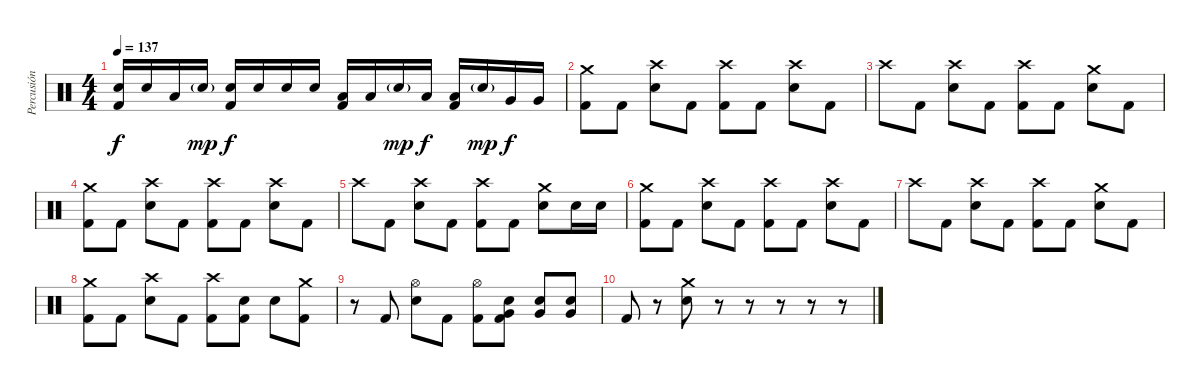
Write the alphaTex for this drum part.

\track ("Percusión" "Percusión") {instrument percussion}
\staff {score}
\articulation defaults
\ts (4 4)
\tempo 137
\clef neutral
\ks c
("Electric Snare (hit)" "Kick (hit) 2").16{dy f} "Electric Snare (hit)".16 "Low Tom (hit)".16 "Electric Snare (hit)"{g}.16{dy mp} ("Electric Snare (hit)" "Kick (hit) 2").16{dy f} "Electric Snare (hit)".16 "Electric Snare (hit)".16 "Electric Snare (hit)".16 ("Low Tom (hit)" "Kick (hit) 2").16 "Low Tom (hit)".16 "Electric Snare (hit)"{g}.16{dy mp} "Low Tom (hit)".16{dy f} ("Low Tom (hit)" "Kick (hit) 2").16 "Electric Snare (hit)"{g}.16{dy mp} "Very Low Tom (hit)".16{dy f} "Very Low Tom (hit)".16 |
("Crash medium (hit)" "Kick (hit) 2").8 "Kick (hit) 2".8 ("Crash high (hit)" "Electric Snare (hit)").8 "Kick (hit) 2".8 ("Crash high (hit)" "Kick (hit) 2").8 "Kick (hit) 2".8 ("Crash high (hit)" "Electric Snare (hit)").8 "Kick (hit) 2".8 |
"Crash high (hit)".8 "Kick (hit) 2".8 ("Crash high (hit)" "Electric Snare (hit)").8 "Kick (hit) 2".8 ("Crash high (hit)" "Kick (hit) 2").8 "Kick (hit) 2".8 ("Crash medium (hit)" "Electric Snare (hit)").8 "Kick (hit) 2".8 |
("Crash medium (hit)" "Kick (hit) 2").8 "Kick (hit) 2".8 ("Crash high (hit)" "Electric Snare (hit)").8 "Kick (hit) 2".8 ("Crash high (hit)" "Kick (hit) 2").8 "Kick (hit) 2".8 ("Crash high (hit)" "Electric Snare (hit)").8 "Kick (hit) 2".8 |
"Crash high (hit)".8 "Kick (hit) 2".8 ("Crash high (hit)" "Electric Snare (hit)").8 "Kick (hit) 2".8 ("Crash high (hit)" "Kick (hit) 2").8 "Kick (hit) 2".8 ("Crash medium (hit)" "Electric Snare (hit)").8 "Electric Snare (hit)".16 "Electric Snare (hit)".16 |
("Crash medium (hit)" "Kick (hit) 2").8 "Kick (hit) 2".8 ("Crash high (hit)" "Electric Snare (hit)").8 "Kick (hit) 2".8 ("Crash high (hit)" "Kick (hit) 2").8 "Kick (hit) 2".8 ("Crash high (hit)" "Electric Snare (hit)").8 "Kick (hit) 2".8 |
"Crash high (hit)".8 "Kick (hit) 2".8 ("Crash high (hit)" "Electric Snare (hit)").8 "Kick (hit) 2".8 ("Crash high (hit)" "Kick (hit) 2").8 "Kick (hit) 2".8 ("Crash medium (hit)" "Electric Snare (hit)").8 "Kick (hit) 2".8 |
("Crash medium (hit)" "Kick (hit) 2").8 "Kick (hit) 2".8 ("Crash high (hit)" "Electric Snare (hit)").8 "Kick (hit) 2".8 ("Crash high (hit)" "Kick (hit) 2").8 ("Electric Snare (hit)" "Kick (hit) 2").8 "Electric Snare (hit)".8 ("Crash medium (hit)" "Kick (hit) 2").8 |
r.8 "Kick (hit) 2".8 ("Hi-Hat (open)" "Electric Snare (hit)").8 "Kick (hit) 2".8 ("Hi-Hat (open)" "Kick (hit) 2").8 ("Very Low Tom (hit)" "Electric Snare (hit)" "Kick (hit) 2").8 ("Very Low Tom (hit)" "Electric Snare (hit)").8 ("Very Low Tom (hit)" "Electric Snare (hit)").8 |
"Kick (hit) 2".8 r.8 ("Crash medium (hit)" "Electric Snare (hit)").8 r.8 r.8 r.8 r.8 r.8
